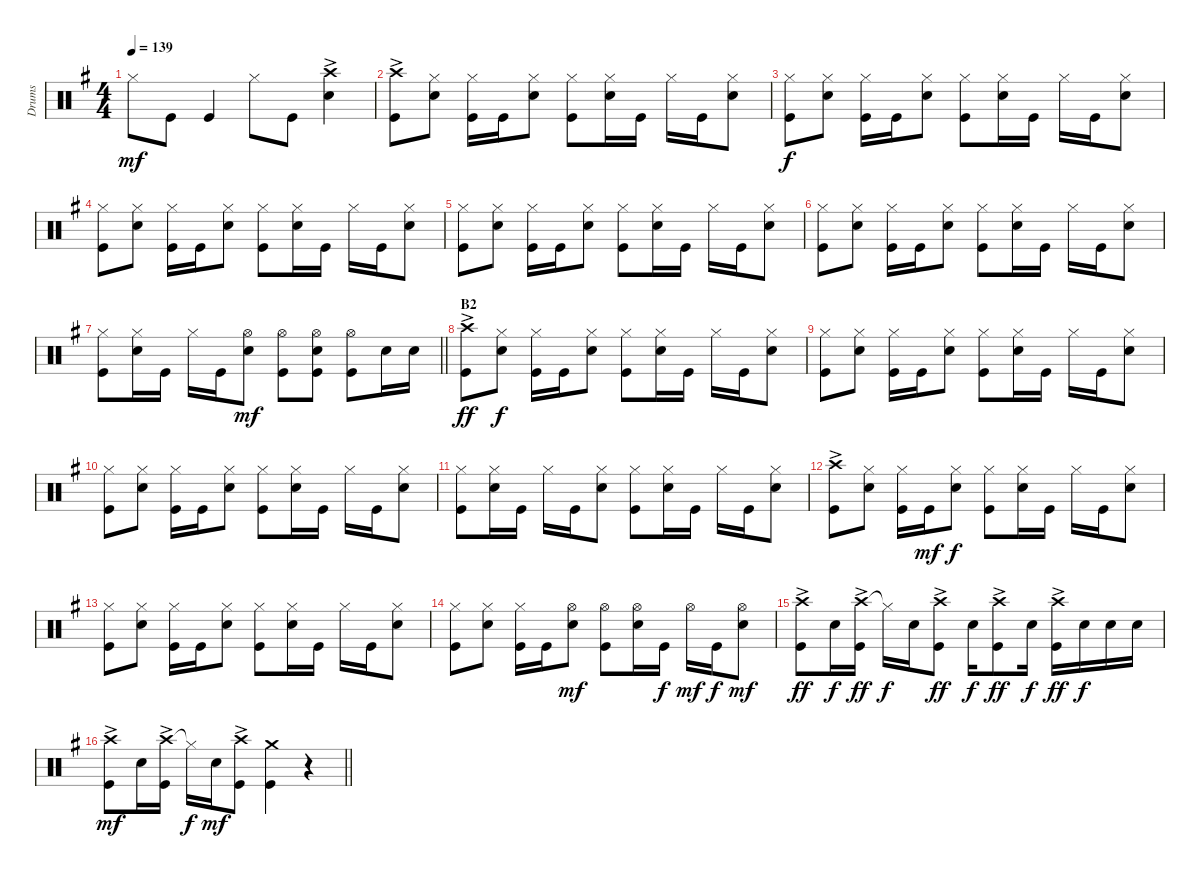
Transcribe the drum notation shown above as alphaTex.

\track ("Drums" "Drums") {instrument percussion}
\staff {score}
\articulation defaults
\ts (4 4)
\tempo 139
\clef neutral
\ks g "Hi-Hat (closed)".8{dy mf} "Kick (hit)".8 "Kick (hit)".4 "Hi-Hat (closed)".8 "Kick (hit)".8
("Crash high (hit)"{ac} "Snare (hit) 2").4 |
("Crash high (hit)"{ac} "Kick (hit)").8 ("Hi-Hat (closed)" "Snare (hit) 2").8 ("Hi-Hat (closed)" "Kick (hit)").16 "Kick (hit)".16 ("Hi-Hat (closed)" "Snare (hit) 2").8 ("Hi-Hat (closed)" "Kick (hit)").8 ("Hi-Hat (closed)" "Snare (hit) 2").16 "Kick (hit)".16 "Hi-Hat (closed)".16 "Kick (hit)".16 ("Hi-Hat (closed)" "Snare (hit) 2").8 |
("Hi-Hat (closed)" "Kick (hit)").8{dy f} ("Hi-Hat (closed)" "Snare (hit) 2").8 ("Hi-Hat (closed)" "Kick (hit)").16 "Kick (hit)".16 ("Hi-Hat (closed)" "Snare (hit) 2").8 ("Hi-Hat (closed)" "Kick (hit)").8 ("Hi-Hat (closed)" "Snare (hit) 2").16 "Kick (hit)".16 "Hi-Hat (closed)".16 "Kick (hit)".16 ("Hi-Hat (closed)" "Snare (hit) 2").8 |
("Hi-Hat (closed)" "Kick (hit)").8 ("Hi-Hat (closed)" "Snare (hit) 2").8 ("Hi-Hat (closed)" "Kick (hit)").16 "Kick (hit)".16 ("Hi-Hat (closed)" "Snare (hit) 2").8 ("Hi-Hat (closed)" "Kick (hit)").8 ("Hi-Hat (closed)" "Snare (hit) 2").16 "Kick (hit)".16 "Hi-Hat (closed)".16 "Kick (hit)".16 ("Hi-Hat (closed)" "Snare (hit) 2").8 |
("Hi-Hat (closed)" "Kick (hit)").8 ("Hi-Hat (closed)" "Snare (hit) 2").8 ("Hi-Hat (closed)" "Kick (hit)").16 "Kick (hit)".16 ("Hi-Hat (closed)" "Snare (hit) 2").8 ("Hi-Hat (closed)" "Kick (hit)").8 ("Hi-Hat (closed)" "Snare (hit) 2").16 "Kick (hit)".16 "Hi-Hat (closed)".16 "Kick (hit)".16 ("Hi-Hat (closed)" "Snare (hit) 2").8 |
("Hi-Hat (closed)" "Kick (hit)").8 ("Hi-Hat (closed)" "Snare (hit) 2").8 ("Hi-Hat (closed)" "Kick (hit)").16 "Kick (hit)".16 ("Hi-Hat (closed)" "Snare (hit) 2").8 ("Hi-Hat (closed)" "Kick (hit)").8 ("Hi-Hat (closed)" "Snare (hit) 2").16 "Kick (hit)".16 "Hi-Hat (closed)".16 "Kick (hit)".16 ("Hi-Hat (closed)" "Snare (hit) 2").8 |
\barLineRight lightlight
("Hi-Hat (closed)" "Kick (hit)").8 ("Hi-Hat (closed)" "Snare (hit) 2").16 "Kick (hit)".16 "Hi-Hat (closed)".16 "Kick (hit)".16 ("Hi-Hat (open)" "Snare (hit) 2").8{dy mf} ("Hi-Hat (open)" "Kick (hit)").8 ("Hi-Hat (open)" "Snare (hit) 2" "Kick (hit)").8 ("Hi-Hat (open)" "Kick (hit)").8 "Snare (hit) 2".16 "Snare (hit) 2".16 |
\section ("" "B2")
("Crash high (hit)"{ac} "Kick (hit)").8{dy ff} ("Hi-Hat (closed)" "Snare (hit) 2").8{dy f} ("Hi-Hat (closed)" "Kick (hit)").16 "Kick (hit)".16 ("Hi-Hat (closed)" "Snare (hit) 2").8 ("Hi-Hat (closed)" "Kick (hit)").8 ("Hi-Hat (closed)" "Snare (hit) 2").16 "Kick (hit)".16 "Hi-Hat (closed)".16 "Kick (hit)".16 ("Hi-Hat (closed)" "Snare (hit) 2").8 |
("Hi-Hat (closed)" "Kick (hit)").8 ("Hi-Hat (closed)" "Snare (hit) 2").8 ("Hi-Hat (closed)" "Kick (hit)").16 "Kick (hit)".16 ("Hi-Hat (closed)" "Snare (hit) 2").8 ("Hi-Hat (closed)" "Kick (hit)").8 ("Hi-Hat (closed)" "Snare (hit) 2").16 "Kick (hit)".16 "Hi-Hat (closed)".16 "Kick (hit)".16 ("Hi-Hat (closed)" "Snare (hit) 2").8 |
("Hi-Hat (closed)" "Kick (hit)").8 ("Hi-Hat (closed)" "Snare (hit) 2").8 ("Hi-Hat (closed)" "Kick (hit)").16 "Kick (hit)".16 ("Hi-Hat (closed)" "Snare (hit) 2").8 ("Hi-Hat (closed)" "Kick (hit)").8 ("Hi-Hat (closed)" "Snare (hit) 2").16 "Kick (hit)".16 "Hi-Hat (closed)".16 "Kick (hit)".16 ("Hi-Hat (closed)" "Snare (hit) 2").8 |
("Hi-Hat (closed)" "Kick (hit)").8 ("Hi-Hat (closed)" "Snare (hit) 2").16 "Kick (hit)".16 "Hi-Hat (closed)".16 "Kick (hit)".16 ("Hi-Hat (closed)" "Snare (hit) 2").8 ("Hi-Hat (closed)" "Kick (hit)").8 ("Hi-Hat (closed)" "Snare (hit) 2").16 "Kick (hit)".16 "Hi-Hat (closed)".16 "Kick (hit)".16 ("Hi-Hat (closed)" "Snare (hit) 2").8 |
("Crash high (hit)"{ac} "Kick (hit)").8 ("Hi-Hat (closed)" "Snare (hit) 2").8 ("Hi-Hat (closed)" "Kick (hit)").16 "Kick (hit)".16{dy mf} ("Hi-Hat (closed)" "Snare (hit) 2").8{dy f} ("Hi-Hat (closed)" "Kick (hit)").8 ("Hi-Hat (closed)" "Snare (hit) 2").16 "Kick (hit)".16 "Hi-Hat (closed)".16 "Kick (hit)".16 ("Hi-Hat (closed)" "Snare (hit) 2").8 |
("Hi-Hat (closed)" "Kick (hit)").8 ("Hi-Hat (closed)" "Snare (hit) 2").8 ("Hi-Hat (closed)" "Kick (hit)").16 "Kick (hit)".16 ("Hi-Hat (closed)" "Snare (hit) 2").8 ("Hi-Hat (closed)" "Kick (hit)").8 ("Hi-Hat (closed)" "Snare (hit) 2").16 "Kick (hit)".16 "Hi-Hat (closed)".16 "Kick (hit)".16 ("Hi-Hat (closed)" "Snare (hit) 2").8 |
("Hi-Hat (closed)" "Kick (hit)").8 ("Hi-Hat (closed)" "Snare (hit) 2").8 ("Hi-Hat (closed)" "Kick (hit)").16 "Kick (hit)".16 ("Hi-Hat (open)" "Snare (hit) 2").8{dy mf} ("Hi-Hat (open)" "Kick (hit)").8 ("Hi-Hat (open)" "Snare (hit) 2").16 "Kick (hit)".16{dy f} "Hi-Hat (open)".16{dy mf} "Kick (hit)".16{dy f} ("Hi-Hat (open)" "Snare (hit) 2").8{dy mf} |
("Crash high (hit)"{ac} "Kick (hit)").8{dy ff} "Snare (hit) 2".16{dy f} ("Crash high (hit)"{ac} "Kick (hit)").16{dy ff} "Hi-Hat (closed)"{t}.16{dy f} "Snare (hit) 2".16 ("Crash high (hit)"{ac} "Kick (hit)").8{dy ff} "Snare (hit) 2".16{dy f} ("Crash high (hit)"{ac} "Kick (hit)").8{dy ff} "Snare (hit) 2".16{dy f} ("Crash high (hit)"{ac} "Kick (hit)").16{dy ff} "Snare (hit) 2".16{dy f} "Snare (hit) 2".16 "Snare (hit) 2".16 |
\barLineRight lightlight
("Crash high (hit)"{ac} "Kick (hit)").8{dy mf} "Snare (hit) 2".16 ("Crash high (hit)"{ac} "Kick (hit)").16 "Hi-Hat (closed)"{t}.16{dy f} "Snare (hit) 2".16{dy mf} ("Crash high (hit)"{ac} "Kick (hit)").8 ("Crash medium (hit)" "Kick (hit)").4 r.4
